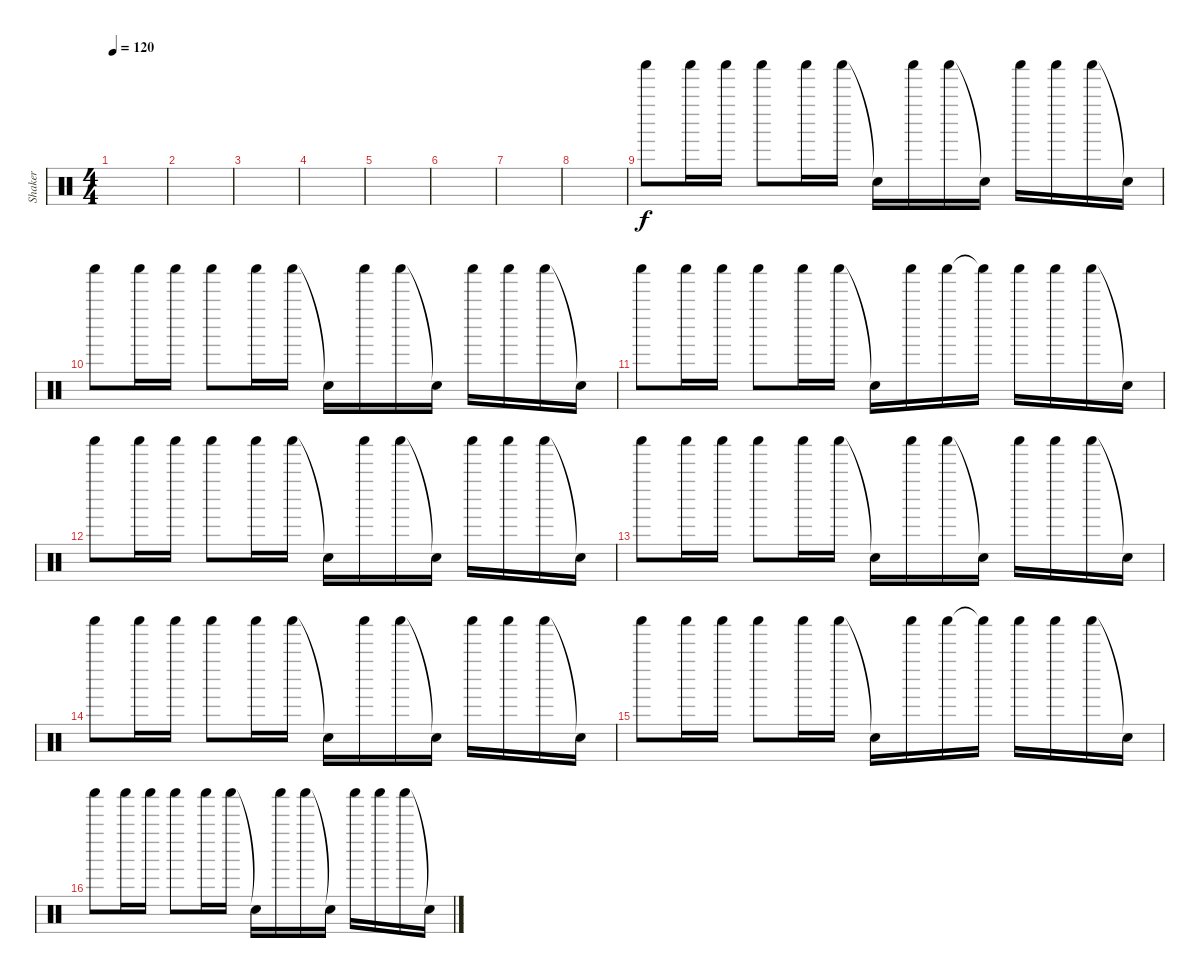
\track ("Shaker" "Shaker") {instrument percussion}
\staff {score}
\articulation defaults
\ts (4 4)
\tempo 120
\clef neutral
\ks c
|
|
|
|
|
|
|
|
"Shaker (hit)".8 "Shaker (hit)".16 "Shaker (hit)".16 "Shaker (hit)".8 "Shaker (hit)".16 "Shaker (hit)".16 "Snare (hit)"{t}.16 "Shaker (hit)".16 "Shaker (hit)".16 "Snare (hit)"{t}.16 "Shaker (hit)".16 "Shaker (hit)".16 "Shaker (hit)".16 "Snare (hit)"{t}.16 |
"Shaker (hit)".8 "Shaker (hit)".16 "Shaker (hit)".16 "Shaker (hit)".8 "Shaker (hit)".16 "Shaker (hit)".16 "Snare (hit)"{t}.16 "Shaker (hit)".16 "Shaker (hit)".16 "Snare (hit)"{t}.16 "Shaker (hit)".16 "Shaker (hit)".16 "Shaker (hit)".16 "Snare (hit)"{t}.16 |
"Shaker (hit)".8 "Shaker (hit)".16 "Shaker (hit)".16 "Shaker (hit)".8 "Shaker (hit)".16 "Shaker (hit)".16 "Snare (hit)"{t}.16 "Shaker (hit)".16 "Shaker (hit)".16 "Shaker (hit)"{t}.16 "Shaker (hit)".16 "Shaker (hit)".16 "Shaker (hit)".16 "Snare (hit)"{t}.16 |
"Shaker (hit)".8 "Shaker (hit)".16 "Shaker (hit)".16 "Shaker (hit)".8 "Shaker (hit)".16 "Shaker (hit)".16 "Snare (hit)"{t}.16 "Shaker (hit)".16 "Shaker (hit)".16 "Snare (hit)"{t}.16 "Shaker (hit)".16 "Shaker (hit)".16 "Shaker (hit)".16 "Snare (hit)"{t}.16 |
"Shaker (hit)".8 "Shaker (hit)".16 "Shaker (hit)".16 "Shaker (hit)".8 "Shaker (hit)".16 "Shaker (hit)".16 "Snare (hit)"{t}.16 "Shaker (hit)".16 "Shaker (hit)".16 "Snare (hit)"{t}.16 "Shaker (hit)".16 "Shaker (hit)".16 "Shaker (hit)".16 "Snare (hit)"{t}.16 |
"Shaker (hit)".8 "Shaker (hit)".16 "Shaker (hit)".16 "Shaker (hit)".8 "Shaker (hit)".16 "Shaker (hit)".16 "Snare (hit)"{t}.16 "Shaker (hit)".16 "Shaker (hit)".16 "Snare (hit)"{t}.16 "Shaker (hit)".16 "Shaker (hit)".16 "Shaker (hit)".16 "Snare (hit)"{t}.16 |
"Shaker (hit)".8 "Shaker (hit)".16 "Shaker (hit)".16 "Shaker (hit)".8 "Shaker (hit)".16 "Shaker (hit)".16 "Snare (hit)"{t}.16 "Shaker (hit)".16 "Shaker (hit)".16 "Shaker (hit)"{t}.16 "Shaker (hit)".16 "Shaker (hit)".16 "Shaker (hit)".16 "Snare (hit)"{t}.16 |
"Shaker (hit)".8 "Shaker (hit)".16 "Shaker (hit)".16 "Shaker (hit)".8 "Shaker (hit)".16 "Shaker (hit)".16 "Snare (hit)"{t}.16 "Shaker (hit)".16 "Shaker (hit)".16 "Snare (hit)"{t}.16 "Shaker (hit)".16 "Shaker (hit)".16 "Shaker (hit)".16 "Snare (hit)"{t}.16
